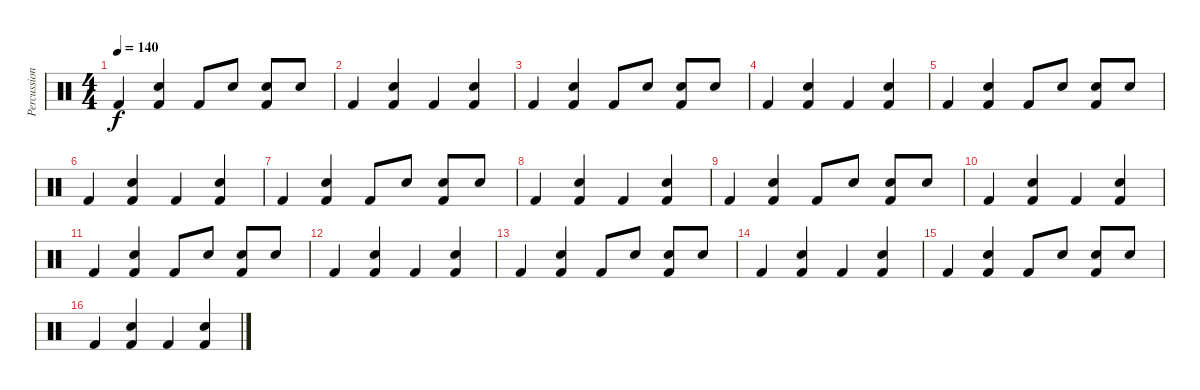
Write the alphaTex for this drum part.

\track ("Percussion" "Percussion") {instrument percussion}
\staff {score}
\articulation defaults
\ts (4 4)
\tempo 140
\clef neutral
\ks c "Kick (hit) 2".4{dy f}
("Hand Clap (hit)" "Kick (hit) 2").4 "Kick (hit) 2".8 "Hand Clap (hit)".8 ("Hand Clap (hit)" "Kick (hit) 2").8 "Hand Clap (hit)".8 |
"Kick (hit) 2".4 ("Hand Clap (hit)" "Kick (hit) 2").4 "Kick (hit) 2".4 ("Hand Clap (hit)" "Kick (hit) 2").4 |
"Kick (hit) 2".4 ("Hand Clap (hit)" "Kick (hit) 2").4 "Kick (hit) 2".8 "Hand Clap (hit)".8 ("Hand Clap (hit)" "Kick (hit) 2").8 "Hand Clap (hit)".8 |
"Kick (hit) 2".4 ("Hand Clap (hit)" "Kick (hit) 2").4 "Kick (hit) 2".4 ("Hand Clap (hit)" "Kick (hit) 2").4 |
"Kick (hit) 2".4 ("Hand Clap (hit)" "Kick (hit) 2").4 "Kick (hit) 2".8 "Hand Clap (hit)".8 ("Hand Clap (hit)" "Kick (hit) 2").8 "Hand Clap (hit)".8 |
"Kick (hit) 2".4 ("Hand Clap (hit)" "Kick (hit) 2").4 "Kick (hit) 2".4 ("Hand Clap (hit)" "Kick (hit) 2").4 |
"Kick (hit) 2".4 ("Hand Clap (hit)" "Kick (hit) 2").4 "Kick (hit) 2".8 "Hand Clap (hit)".8 ("Hand Clap (hit)" "Kick (hit) 2").8 "Hand Clap (hit)".8 |
"Kick (hit) 2".4 ("Hand Clap (hit)" "Kick (hit) 2").4 "Kick (hit) 2".4 ("Hand Clap (hit)" "Kick (hit) 2").4 |
"Kick (hit) 2".4 ("Hand Clap (hit)" "Kick (hit) 2").4 "Kick (hit) 2".8 "Hand Clap (hit)".8 ("Hand Clap (hit)" "Kick (hit) 2").8 "Hand Clap (hit)".8 |
"Kick (hit) 2".4 ("Hand Clap (hit)" "Kick (hit) 2").4 "Kick (hit) 2".4 ("Hand Clap (hit)" "Kick (hit) 2").4 |
"Kick (hit) 2".4 ("Hand Clap (hit)" "Kick (hit) 2").4 "Kick (hit) 2".8 "Hand Clap (hit)".8 ("Hand Clap (hit)" "Kick (hit) 2").8 "Hand Clap (hit)".8 |
"Kick (hit) 2".4 ("Hand Clap (hit)" "Kick (hit) 2").4 "Kick (hit) 2".4 ("Hand Clap (hit)" "Kick (hit) 2").4 |
"Kick (hit) 2".4 ("Hand Clap (hit)" "Kick (hit) 2").4 "Kick (hit) 2".8 "Hand Clap (hit)".8 ("Hand Clap (hit)" "Kick (hit) 2").8 "Hand Clap (hit)".8 |
"Kick (hit) 2".4 ("Hand Clap (hit)" "Kick (hit) 2").4 "Kick (hit) 2".4 ("Hand Clap (hit)" "Kick (hit) 2").4 |
"Kick (hit) 2".4 ("Hand Clap (hit)" "Kick (hit) 2").4 "Kick (hit) 2".8 "Hand Clap (hit)".8 ("Hand Clap (hit)" "Kick (hit) 2").8 "Hand Clap (hit)".8 |
"Kick (hit) 2".4 ("Hand Clap (hit)" "Kick (hit) 2").4 "Kick (hit) 2".4 ("Hand Clap (hit)" "Kick (hit) 2").4
